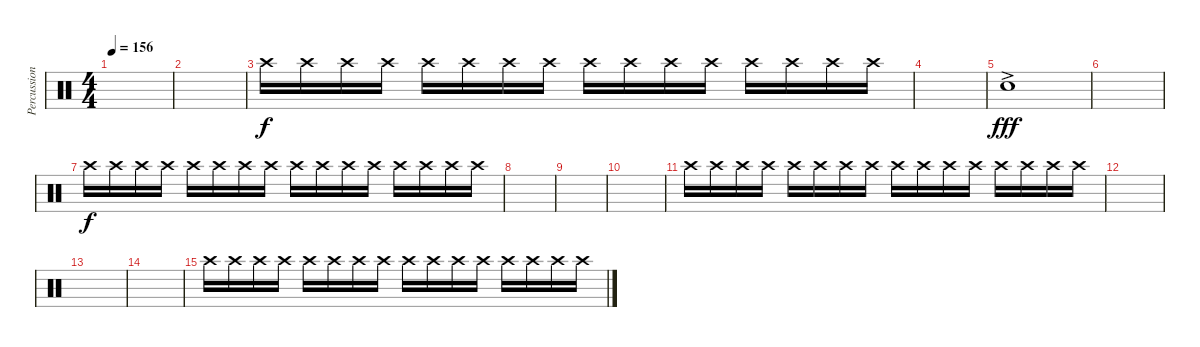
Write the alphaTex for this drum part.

\track ("Percussion" "Percussion") {instrument percussion}
\staff {score}
\articulation defaults
\ts (4 4)
\tempo 156
\clef neutral
\ks c
|
|
"Crash high (hit)".16{volume 6} "Crash high (hit)".16 "Crash high (hit)".16 "Crash high (hit)".16 "Crash high (hit)".16 "Crash high (hit)".16 "Crash high (hit)".16 "Crash high (hit)".16 "Crash high (hit)".16 "Crash high (hit)".16 "Crash high (hit)".16 "Crash high (hit)".16 "Crash high (hit)".16 "Crash high (hit)".16 "Crash high (hit)".16 "Crash high (hit)".16 |
|
"Hand Clap (hit)"{ac}.1{dy fff volume 16} |
|
"Crash high (hit)".16{dy f volume 6} "Crash high (hit)".16 "Crash high (hit)".16 "Crash high (hit)".16 "Crash high (hit)".16 "Crash high (hit)".16 "Crash high (hit)".16 "Crash high (hit)".16 "Crash high (hit)".16 "Crash high (hit)".16 "Crash high (hit)".16 "Crash high (hit)".16 "Crash high (hit)".16 "Crash high (hit)".16 "Crash high (hit)".16 "Crash high (hit)".16 |
|
|
|
"Crash high (hit)".16 "Crash high (hit)".16 "Crash high (hit)".16 "Crash high (hit)".16 "Crash high (hit)".16 "Crash high (hit)".16 "Crash high (hit)".16 "Crash high (hit)".16 "Crash high (hit)".16 "Crash high (hit)".16 "Crash high (hit)".16 "Crash high (hit)".16 "Crash high (hit)".16 "Crash high (hit)".16 "Crash high (hit)".16 "Crash high (hit)".16 |
|
|
|
"Crash high (hit)".16{volume 6} "Crash high (hit)".16 "Crash high (hit)".16 "Crash high (hit)".16 "Crash high (hit)".16 "Crash high (hit)".16 "Crash high (hit)".16 "Crash high (hit)".16 "Crash high (hit)".16 "Crash high (hit)".16 "Crash high (hit)".16 "Crash high (hit)".16 "Crash high (hit)".16 "Crash high (hit)".16 "Crash high (hit)".16 "Crash high (hit)".16
